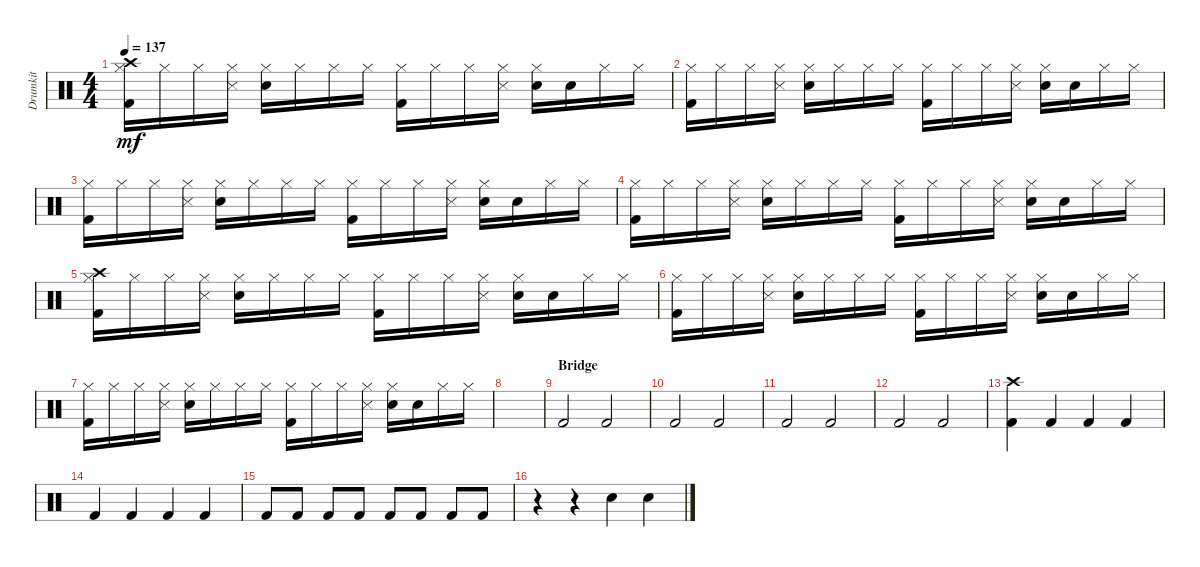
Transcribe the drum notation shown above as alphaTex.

\track ("Drumkit" "Drumkit") {instrument percussion}
\staff {score}
\articulation defaults
\ts (4 4)
\tempo 137
\clef neutral
\ks c
("Hi-Hat (closed)" "Crash high (hit)" "Kick (hit) 2").16{dy mf} "Hi-Hat (closed)".16 "Hi-Hat (closed)".16 ("Hi-Hat (closed)" "Snare (side stick) 3").16 ("Hi-Hat (closed)" "Electric Snare (hit)").16 "Hi-Hat (closed)".16 "Hi-Hat (closed)".16 "Hi-Hat (closed)".16 ("Hi-Hat (closed)" "Kick (hit) 2").16 "Hi-Hat (closed)".16 "Hi-Hat (closed)".16 ("Hi-Hat (closed)" "Snare (side stick) 3").16 ("Hi-Hat (closed)" "Electric Snare (hit)").16 "Snare (hit)".16 "Hi-Hat (closed)".16 "Hi-Hat (closed)".16 |
("Hi-Hat (closed)" "Kick (hit) 2").16 "Hi-Hat (closed)".16 "Hi-Hat (closed)".16 ("Hi-Hat (closed)" "Snare (side stick) 3").16 ("Hi-Hat (closed)" "Electric Snare (hit)").16 "Hi-Hat (closed)".16 "Hi-Hat (closed)".16 "Hi-Hat (closed)".16 ("Hi-Hat (closed)" "Kick (hit) 2").16 "Hi-Hat (closed)".16 "Hi-Hat (closed)".16 ("Hi-Hat (closed)" "Snare (side stick) 3").16 ("Hi-Hat (closed)" "Electric Snare (hit)").16 "Snare (hit)".16 "Hi-Hat (closed)".16 "Hi-Hat (closed)".16 |
("Hi-Hat (closed)" "Kick (hit) 2").16 "Hi-Hat (closed)".16 "Hi-Hat (closed)".16 ("Hi-Hat (closed)" "Snare (side stick) 3").16 ("Hi-Hat (closed)" "Electric Snare (hit)").16 "Hi-Hat (closed)".16 "Hi-Hat (closed)".16 "Hi-Hat (closed)".16 ("Hi-Hat (closed)" "Kick (hit) 2").16 "Hi-Hat (closed)".16 "Hi-Hat (closed)".16 ("Hi-Hat (closed)" "Snare (side stick) 3").16 ("Hi-Hat (closed)" "Electric Snare (hit)").16 "Snare (hit)".16 "Hi-Hat (closed)".16 "Hi-Hat (closed)".16 |
("Hi-Hat (closed)" "Kick (hit) 2").16 "Hi-Hat (closed)".16 "Hi-Hat (closed)".16 ("Hi-Hat (closed)" "Snare (side stick) 3").16 ("Hi-Hat (closed)" "Electric Snare (hit)").16 "Hi-Hat (closed)".16 "Hi-Hat (closed)".16 "Hi-Hat (closed)".16 ("Hi-Hat (closed)" "Kick (hit) 2").16 "Hi-Hat (closed)".16 "Hi-Hat (closed)".16 ("Hi-Hat (closed)" "Snare (side stick) 3").16 ("Hi-Hat (closed)" "Electric Snare (hit)").16 "Snare (hit)".16 "Hi-Hat (closed)".16 "Hi-Hat (closed)".16 |
("Hi-Hat (closed)" "Crash high (hit)" "Kick (hit) 2").16 "Hi-Hat (closed)".16 "Hi-Hat (closed)".16 ("Hi-Hat (closed)" "Snare (side stick) 3").16 ("Hi-Hat (closed)" "Electric Snare (hit)").16 "Hi-Hat (closed)".16 "Hi-Hat (closed)".16 "Hi-Hat (closed)".16 ("Hi-Hat (closed)" "Kick (hit) 2").16 "Hi-Hat (closed)".16 "Hi-Hat (closed)".16 ("Hi-Hat (closed)" "Snare (side stick) 3").16 ("Hi-Hat (closed)" "Electric Snare (hit)").16 "Snare (hit)".16 "Hi-Hat (closed)".16 "Hi-Hat (closed)".16 |
("Hi-Hat (closed)" "Kick (hit) 2").16 "Hi-Hat (closed)".16 "Hi-Hat (closed)".16 ("Hi-Hat (closed)" "Snare (side stick) 3").16 ("Hi-Hat (closed)" "Electric Snare (hit)").16 "Hi-Hat (closed)".16 "Hi-Hat (closed)".16 "Hi-Hat (closed)".16 ("Hi-Hat (closed)" "Kick (hit) 2").16 "Hi-Hat (closed)".16 "Hi-Hat (closed)".16 ("Hi-Hat (closed)" "Snare (side stick) 3").16 ("Hi-Hat (closed)" "Electric Snare (hit)").16 "Snare (hit)".16 "Hi-Hat (closed)".16 "Hi-Hat (closed)".16 |
("Hi-Hat (closed)" "Kick (hit) 2").16 "Hi-Hat (closed)".16 "Hi-Hat (closed)".16 ("Hi-Hat (closed)" "Snare (side stick) 3").16 ("Hi-Hat (closed)" "Electric Snare (hit)").16 "Hi-Hat (closed)".16 "Hi-Hat (closed)".16 "Hi-Hat (closed)".16 ("Hi-Hat (closed)" "Kick (hit) 2").16 "Hi-Hat (closed)".16 "Hi-Hat (closed)".16 ("Hi-Hat (closed)" "Snare (side stick) 3").16 ("Hi-Hat (closed)" "Electric Snare (hit)").16 "Snare (hit)".16 "Hi-Hat (closed)".16 "Hi-Hat (closed)".16 |
|
\section ("" "Bridge")
"Kick (hit) 2".2 "Kick (hit) 2".2 |
"Kick (hit) 2".2 "Kick (hit) 2".2 |
"Kick (hit) 2".2 "Kick (hit) 2".2 |
"Kick (hit) 2".2 "Kick (hit) 2".2 |
("Kick (hit) 2" "Crash high (hit)").4 "Kick (hit) 2".4 "Kick (hit) 2".4 "Kick (hit) 2".4 |
"Kick (hit) 2".4 "Kick (hit) 2".4 "Kick (hit) 2".4 "Kick (hit) 2".4 |
"Kick (hit) 2".8 "Kick (hit) 2".8 "Kick (hit) 2".8 "Kick (hit) 2".8 "Kick (hit) 2".8 "Kick (hit) 2".8 "Kick (hit) 2".8 "Kick (hit) 2".8 |
r.4 r.4 "Snare (hit) 2".4 "Snare (hit) 2".4
